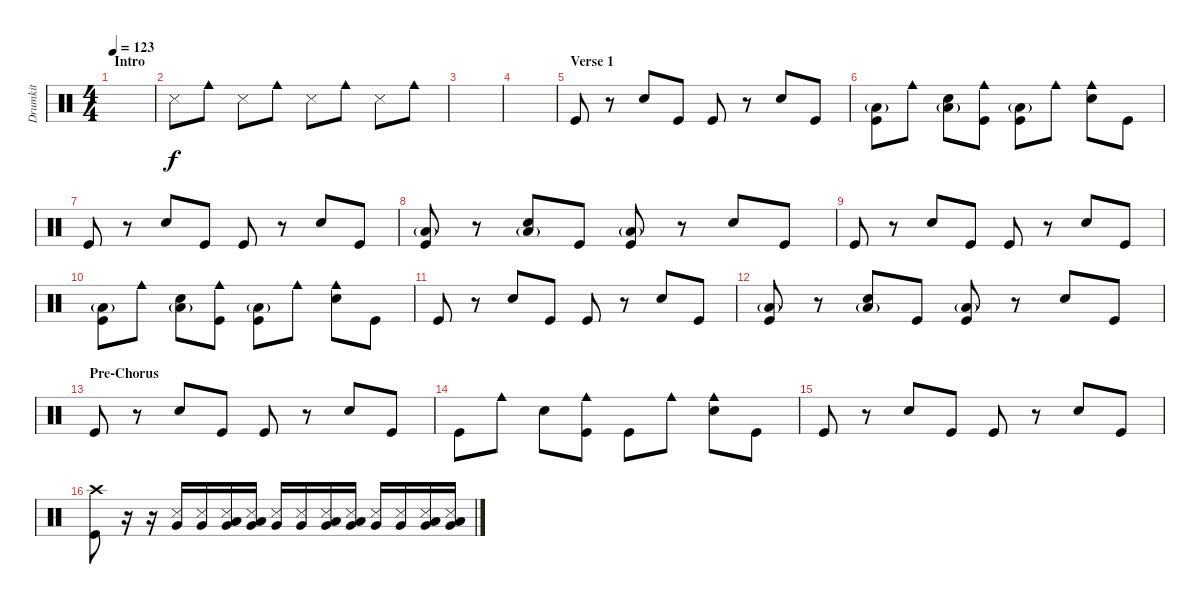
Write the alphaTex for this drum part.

\track ("Drumkit" "Drumkit") {instrument percussion}
\staff {score}
\articulation defaults
\ts (4 4)
\section ("" "Intro")
\tempo 123
\clef neutral
\ks c
|
"Snare (side stick) 3".8 "Cowbell medium (hit)".8 "Snare (side stick) 3".8 "Cowbell medium (hit)".8 "Snare (side stick) 3".8 "Cowbell medium (hit)".8 "Snare (side stick) 3".8 "Cowbell medium (hit)".8 |
|
|
\section ("" "Verse 1")
"Kick (hit)".8 r.8 "Snare (hit) 2".8 "Kick (hit)".8 "Kick (hit)".8 r.8 "Snare (hit) 2".8 "Kick (hit)".8 |
("Kick (hit)" "Low Floor Tom (hit)"{g}).8 "Cowbell medium (hit)".8 ("Snare (hit) 2" "Low Floor Tom (hit)"{g}).8 ("Kick (hit)" "Cowbell medium (hit)").8 ("Kick (hit)" "Low Floor Tom (hit)"{g}).8 "Cowbell medium (hit)".8 ("Snare (hit) 2" "Cowbell medium (hit)").8 "Kick (hit)".8 |
"Kick (hit)".8 r.8 "Snare (hit) 2".8 "Kick (hit)".8 "Kick (hit)".8 r.8 "Snare (hit) 2".8 "Kick (hit)".8 |
("Kick (hit)" "Low Floor Tom (hit)"{g}).8 r.8 ("Snare (hit) 2" "Low Floor Tom (hit)"{g}).8 "Kick (hit)".8 ("Kick (hit)" "Low Floor Tom (hit)"{g}).8 r.8 "Snare (hit) 2".8 "Kick (hit)".8 |
"Kick (hit)".8 r.8 "Snare (hit) 2".8 "Kick (hit)".8 "Kick (hit)".8 r.8 "Snare (hit) 2".8 "Kick (hit)".8 |
("Kick (hit)" "Low Floor Tom (hit)"{g}).8 "Cowbell medium (hit)".8 ("Snare (hit) 2" "Low Floor Tom (hit)"{g}).8 ("Kick (hit)" "Cowbell medium (hit)").8 ("Kick (hit)" "Low Floor Tom (hit)"{g}).8 "Cowbell medium (hit)".8 ("Snare (hit) 2" "Cowbell medium (hit)").8 "Kick (hit)".8 |
"Kick (hit)".8 r.8 "Snare (hit) 2".8 "Kick (hit)".8 "Kick (hit)".8 r.8 "Snare (hit) 2".8 "Kick (hit)".8 |
("Kick (hit)" "Low Floor Tom (hit)"{g}).8 r.8 ("Snare (hit) 2" "Low Floor Tom (hit)"{g}).8 "Kick (hit)".8 ("Kick (hit)" "Low Floor Tom (hit)"{g}).8 r.8 "Snare (hit) 2".8 "Kick (hit)".8 |
\section ("" "Pre-Chorus")
"Kick (hit)".8 r.8 "Snare (hit) 2".8 "Kick (hit)".8 "Kick (hit)".8 r.8 "Snare (hit) 2".8 "Kick (hit)".8 |
"Kick (hit)".8 "Cowbell medium (hit)".8 "Snare (hit) 2".8 ("Kick (hit)" "Cowbell medium (hit)").8 "Kick (hit)".8 "Cowbell medium (hit)".8 ("Snare (hit) 2" "Cowbell medium (hit)").8 "Kick (hit)".8 |
"Kick (hit)".8 r.8 "Snare (hit) 2".8 "Kick (hit)".8 "Kick (hit)".8 r.8 "Snare (hit) 2".8 "Kick (hit)".8 |
("Crash high (hit)" "Kick (hit)").8 r.16 r.16 ("Snare (side stick) 3" "Very Low Tom (hit)").16 ("Snare (side stick) 3" "Very Low Tom (hit)").16 ("Snare (side stick) 3" "Very Low Tom (hit)" "Low Floor Tom (hit)").16 ("Snare (side stick) 3" "Very Low Tom (hit)" "Low Floor Tom (hit)").16 ("Snare (side stick) 3" "Very Low Tom (hit)").16 ("Snare (side stick) 3" "Very Low Tom (hit)").16 ("Snare (side stick) 3" "Very Low Tom (hit)" "Low Floor Tom (hit)").16 ("Snare (side stick) 3" "Very Low Tom (hit)" "Low Floor Tom (hit)").16 ("Snare (side stick) 3" "Very Low Tom (hit)").16 ("Snare (side stick) 3" "Very Low Tom (hit)").16 ("Snare (side stick) 3" "Very Low Tom (hit)" "Low Floor Tom (hit)").16 ("Snare (side stick) 3" "Very Low Tom (hit)" "Low Floor Tom (hit)").16
